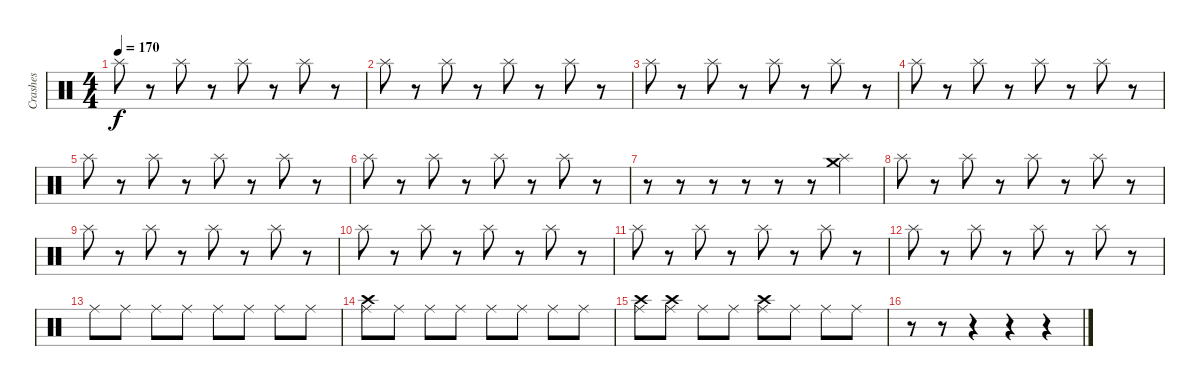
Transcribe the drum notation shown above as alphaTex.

\track ("Crashes" "Crashes") {instrument percussion}
\staff {score}
\articulation defaults
\ts (4 4)
\tempo 170
\clef neutral
\ks c "Splash (hit)".8{dy f}
r.8 "Splash (hit)".8 r.8 "Splash (hit)".8 r.8 "Splash (hit)".8 r.8 |
"Splash (hit)".8 r.8 "Splash (hit)".8 r.8 "Splash (hit)".8 r.8 "Splash (hit)".8 r.8 |
"Splash (hit)".8 r.8 "Splash (hit)".8 r.8 "Splash (hit)".8 r.8 "Splash (hit)".8 r.8 |
"Splash (hit)".8 r.8 "Splash (hit)".8 r.8 "Splash (hit)".8 r.8 "Splash (hit)".8 r.8 |
"Splash (hit)".8 r.8 "Splash (hit)".8 r.8 "Splash (hit)".8 r.8 "Splash (hit)".8 r.8 |
"Splash (hit)".8 r.8 "Splash (hit)".8 r.8 "Splash (hit)".8 r.8 "Splash (hit)".8 r.8 |
r.8 r.8 r.8 r.8 r.8 r.8 ("Crash medium (hit)" "Splash (hit)").4 |
"Splash (hit)".8 r.8 "Splash (hit)".8 r.8 "Splash (hit)".8 r.8 "Splash (hit)".8 r.8 |
"Splash (hit)".8 r.8 "Splash (hit)".8 r.8 "Splash (hit)".8 r.8 "Splash (hit)".8 r.8 |
"Splash (hit)".8 r.8 "Splash (hit)".8 r.8 "Splash (hit)".8 r.8 "Splash (hit)".8 r.8 |
"Splash (hit)".8 r.8 "Splash (hit)".8 r.8 "Splash (hit)".8 r.8 "Splash (hit)".8 r.8 |
"Splash (hit)".8 r.8 "Splash (hit)".8 r.8 "Splash (hit)".8 r.8 "Splash (hit)".8 r.8 |
"Ride (middle)".8 "Ride (middle)".8 "Ride (middle)".8 "Ride (middle)".8 "Ride (middle)".8 "Ride (middle)".8 "Ride (middle)".8 "Ride (middle)".8 |
("Ride (middle)" "Crash high (hit)").8 "Ride (middle)".8 "Ride (middle)".8 "Ride (middle)".8 "Ride (middle)".8 "Ride (middle)".8 "Ride (middle)".8 "Ride (middle)".8 |
("Ride (middle)" "Crash high (hit)").8 ("Ride (middle)" "Crash high (hit)").8 "Ride (middle)".8 "Ride (middle)".8 ("Ride (middle)" "Crash high (hit)").8 "Ride (middle)".8 "Ride (middle)".8 "Ride (middle)".8 |
r.8 r.8 r.4 r.4 r.4
